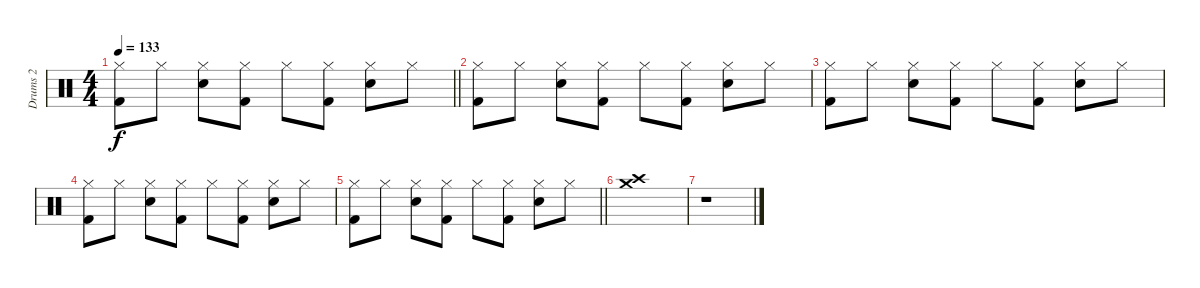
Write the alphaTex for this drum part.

\track ("Drums 2" "Drums 2") {instrument percussion}
\staff {score}
\articulation defaults
\ts (4 4)
\tempo 133
\clef neutral
\barLineRight lightlight
\ks c
("Hi-Hat (closed)" "Kick (hit) 2").8{dy f} "Hi-Hat (closed)".8 ("Snare (hit) 2" "Hi-Hat (closed)").8 ("Hi-Hat (closed)" "Kick (hit) 2").8 "Hi-Hat (closed)".8 ("Hi-Hat (closed)" "Kick (hit) 2").8 ("Snare (hit) 2" "Hi-Hat (closed)").8 "Hi-Hat (closed)".8 |
("Hi-Hat (closed)" "Kick (hit) 2").8 "Hi-Hat (closed)".8 ("Snare (hit) 2" "Hi-Hat (closed)").8 ("Hi-Hat (closed)" "Kick (hit) 2").8 "Hi-Hat (closed)".8 ("Hi-Hat (closed)" "Kick (hit) 2").8 ("Snare (hit) 2" "Hi-Hat (closed)").8 "Hi-Hat (closed)".8 |
("Hi-Hat (closed)" "Kick (hit) 2").8 "Hi-Hat (closed)".8 ("Snare (hit) 2" "Hi-Hat (closed)").8 ("Hi-Hat (closed)" "Kick (hit) 2").8 "Hi-Hat (closed)".8 ("Hi-Hat (closed)" "Kick (hit) 2").8 ("Snare (hit) 2" "Hi-Hat (closed)").8 "Hi-Hat (closed)".8 |
("Hi-Hat (closed)" "Kick (hit) 2").8 "Hi-Hat (closed)".8 ("Snare (hit) 2" "Hi-Hat (closed)").8 ("Hi-Hat (closed)" "Kick (hit) 2").8 "Hi-Hat (closed)".8 ("Hi-Hat (closed)" "Kick (hit) 2").8 ("Snare (hit) 2" "Hi-Hat (closed)").8 "Hi-Hat (closed)".8 |
\barLineRight lightlight
("Hi-Hat (closed)" "Kick (hit) 2").8 "Hi-Hat (closed)".8 ("Snare (hit) 2" "Hi-Hat (closed)").8 ("Hi-Hat (closed)" "Kick (hit) 2").8 "Hi-Hat (closed)".8 ("Hi-Hat (closed)" "Kick (hit) 2").8 ("Snare (hit) 2" "Hi-Hat (closed)").8 "Hi-Hat (closed)".8 |
("Crash high (hit)" "Crash medium (hit)").1 |
r.1
